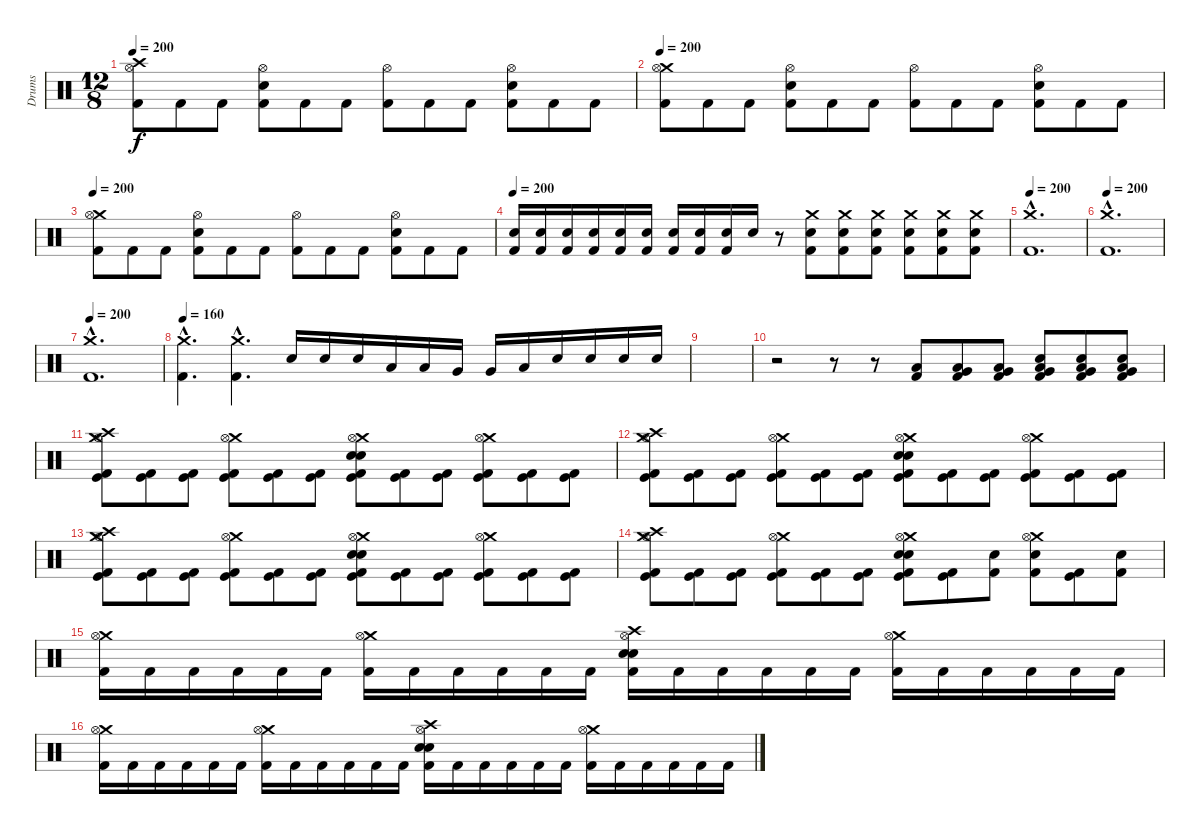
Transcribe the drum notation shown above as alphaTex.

\track ("Drums" "Drums") {instrument percussion}
\staff {score}
\articulation defaults
\ts (12 8)
\tempo 200
\clef neutral
\ks c
("Crash high (hit)" "Hi-Hat (open)" "Kick (hit) 2").8{dy f} "Kick (hit) 2".8 "Kick (hit) 2".8 ("Hi-Hat (open)" "Electric Snare (hit)" "Kick (hit) 2").8 "Kick (hit) 2".8 "Kick (hit) 2".8 ("Hi-Hat (open)" "Kick (hit) 2").8 "Kick (hit) 2".8 "Kick (hit) 2".8 ("Hi-Hat (open)" "Electric Snare (hit)" "Kick (hit) 2").8 "Kick (hit) 2".8 "Kick (hit) 2".8 |
\tempo 200
("Crash medium (hit)" "Hi-Hat (open)" "Kick (hit) 2").8 "Kick (hit) 2".8 "Kick (hit) 2".8 ("Hi-Hat (open)" "Electric Snare (hit)" "Kick (hit) 2").8 "Kick (hit) 2".8 "Kick (hit) 2".8 ("Hi-Hat (open)" "Kick (hit) 2").8 "Kick (hit) 2".8 "Kick (hit) 2".8 ("Hi-Hat (open)" "Electric Snare (hit)" "Kick (hit) 2").8 "Kick (hit) 2".8 "Kick (hit) 2".8 |
\tempo 200
("Crash medium (hit)" "Hi-Hat (open)" "Kick (hit) 2").8 "Kick (hit) 2".8 "Kick (hit) 2".8 ("Hi-Hat (open)" "Electric Snare (hit)" "Kick (hit) 2").8 "Kick (hit) 2".8 "Kick (hit) 2".8 ("Hi-Hat (open)" "Kick (hit) 2").8 "Kick (hit) 2".8 "Kick (hit) 2".8 ("Hi-Hat (open)" "Electric Snare (hit)" "Kick (hit) 2").8 "Kick (hit) 2".8 "Kick (hit) 2".8 |
\tempo 200
("Electric Snare (hit)" "Kick (hit) 2").16 ("Electric Snare (hit)" "Kick (hit) 2").16 ("Electric Snare (hit)" "Kick (hit) 2").16 ("Electric Snare (hit)" "Kick (hit) 2").16 ("Electric Snare (hit)" "Kick (hit) 2").16 ("Electric Snare (hit)" "Kick (hit) 2").16 ("Electric Snare (hit)" "Kick (hit) 2").16 ("Electric Snare (hit)" "Kick (hit) 2").16 ("Electric Snare (hit)" "Kick (hit) 2").16 "Electric Snare (hit)".16 r.8 ("Crash medium (hit)" "Electric Snare (hit)" "Kick (hit) 2").8 ("Crash medium (hit)" "Electric Snare (hit)" "Kick (hit) 2").8 ("Crash medium (hit)" "Electric Snare (hit)" "Kick (hit) 2").8 ("Crash medium (hit)" "Electric Snare (hit)" "Kick (hit) 2").8 ("Crash medium (hit)" "Electric Snare (hit)" "Kick (hit) 2").8 ("Crash medium (hit)" "Electric Snare (hit)" "Kick (hit) 2").8 |
\tempo 200
("Crash medium (hit)"{hac} "Kick (hit) 2"{hac}).1{d} |
\tempo 200
("Crash medium (hit)"{hac} "Kick (hit) 2"{hac}).1{d} |
\tempo 200
("Crash medium (hit)"{hac} "Kick (hit) 2"{hac}).1{d} |
\tempo 160
("Crash medium (hit)"{hac} "Kick (hit) 2"{hac}).4{d} ("Crash medium (hit)"{hac} "Kick (hit) 2"{hac}).4{d} "Electric Snare (hit)".16 "Electric Snare (hit)".16 "Electric Snare (hit)".16 "Low Tom (hit)".16 "Low Tom (hit)".16 "Very Low Tom (hit)".16 "Very Low Tom (hit)".16 "Low Floor Tom (hit)".16 "Electric Snare (hit)".16 "Electric Snare (hit)".16 "Electric Snare (hit)".16 "Electric Snare (hit)".16 |
|
r.2 r.8 r.8 ("Low Floor Tom (hit)" "Kick (hit) 2").8 ("Very Low Tom (hit)" "Low Floor Tom (hit)" "Kick (hit) 2").8 ("Very Low Tom (hit)" "Low Floor Tom (hit)" "Kick (hit) 2").8 ("Electric Snare (hit)" "Very Low Tom (hit)" "Low Floor Tom (hit)" "Kick (hit) 2").8 ("Electric Snare (hit)" "Very Low Tom (hit)" "Low Floor Tom (hit)" "Kick (hit) 2").8 ("Electric Snare (hit)" "Very Low Tom (hit)" "Low Floor Tom (hit)" "Kick (hit) 2").8 |
("Crash high (hit)" "Crash medium (hit)" "Hi-Hat (open)" "Kick (hit)" "Kick (hit) 2").8{volume 16} ("Kick (hit)" "Kick (hit) 2").8 ("Kick (hit)" "Kick (hit) 2").8 ("Crash medium (hit)" "Hi-Hat (open)" "Kick (hit)" "Kick (hit) 2").8 ("Kick (hit)" "Kick (hit) 2").8 ("Kick (hit)" "Kick (hit) 2").8 ("Crash medium (hit)" "Hi-Hat (open)" "Electric Snare (hit)" "Electric Snare (hit)" "Kick (hit)" "Kick (hit) 2").8 ("Kick (hit)" "Kick (hit) 2").8 ("Kick (hit)" "Kick (hit) 2").8 ("Crash medium (hit)" "Hi-Hat (open)" "Kick (hit)" "Kick (hit) 2").8 ("Kick (hit)" "Kick (hit) 2").8 ("Kick (hit)" "Kick (hit) 2").8 |
("Crash high (hit)" "Crash medium (hit)" "Hi-Hat (open)" "Kick (hit)" "Kick (hit) 2").8{volume 16} ("Kick (hit)" "Kick (hit) 2").8 ("Kick (hit)" "Kick (hit) 2").8 ("Crash medium (hit)" "Hi-Hat (open)" "Kick (hit)" "Kick (hit) 2").8 ("Kick (hit)" "Kick (hit) 2").8 ("Kick (hit)" "Kick (hit) 2").8 ("Crash medium (hit)" "Hi-Hat (open)" "Electric Snare (hit)" "Electric Snare (hit)" "Kick (hit)" "Kick (hit) 2").8 ("Kick (hit)" "Kick (hit) 2").8 ("Kick (hit)" "Kick (hit) 2").8 ("Crash medium (hit)" "Hi-Hat (open)" "Kick (hit)" "Kick (hit) 2").8 ("Kick (hit)" "Kick (hit) 2").8 ("Kick (hit)" "Kick (hit) 2").8 |
("Crash high (hit)" "Crash medium (hit)" "Hi-Hat (open)" "Kick (hit)" "Kick (hit) 2").8{volume 16} ("Kick (hit)" "Kick (hit) 2").8 ("Kick (hit)" "Kick (hit) 2").8 ("Crash medium (hit)" "Hi-Hat (open)" "Kick (hit)" "Kick (hit) 2").8 ("Kick (hit)" "Kick (hit) 2").8 ("Kick (hit)" "Kick (hit) 2").8 ("Crash medium (hit)" "Hi-Hat (open)" "Electric Snare (hit)" "Electric Snare (hit)" "Kick (hit)" "Kick (hit) 2").8 ("Kick (hit)" "Kick (hit) 2").8 ("Kick (hit)" "Kick (hit) 2").8 ("Crash medium (hit)" "Hi-Hat (open)" "Kick (hit)" "Kick (hit) 2").8 ("Kick (hit)" "Kick (hit) 2").8 ("Kick (hit)" "Kick (hit) 2").8 |
("Crash high (hit)" "Crash medium (hit)" "Hi-Hat (open)" "Kick (hit)" "Kick (hit) 2").8{volume 16} ("Kick (hit)" "Kick (hit) 2").8 ("Kick (hit)" "Kick (hit) 2").8 ("Crash medium (hit)" "Hi-Hat (open)" "Kick (hit)" "Kick (hit) 2").8 ("Kick (hit)" "Kick (hit) 2").8 ("Kick (hit)" "Kick (hit) 2").8 ("Crash medium (hit)" "Hi-Hat (open)" "Electric Snare (hit)" "Electric Snare (hit)" "Kick (hit)" "Kick (hit) 2").8 ("Kick (hit)" "Kick (hit) 2").8 ("Electric Snare (hit)" "Kick (hit) 2").8 ("Crash medium (hit)" "Hi-Hat (open)" "Electric Snare (hit)" "Kick (hit) 2").8 ("Kick (hit)" "Kick (hit) 2").8 ("Electric Snare (hit)" "Kick (hit) 2").8 |
("Crash medium (hit)" "Hi-Hat (open)" "Kick (hit) 2").16 "Kick (hit) 2".16 "Kick (hit) 2".16 "Kick (hit) 2".16 "Kick (hit) 2".16 "Kick (hit) 2".16 ("Crash medium (hit)" "Hi-Hat (open)" "Kick (hit) 2").16 "Kick (hit) 2".16 "Kick (hit) 2".16 "Kick (hit) 2".16 "Kick (hit) 2".16 "Kick (hit) 2".16 ("Crash high (hit)" "Hi-Hat (open)" "Electric Snare (hit)" "Electric Snare (hit)" "Kick (hit) 2").16 "Kick (hit) 2".16 "Kick (hit) 2".16 "Kick (hit) 2".16 "Kick (hit) 2".16 "Kick (hit) 2".16 ("Crash medium (hit)" "Hi-Hat (open)" "Kick (hit) 2").16 "Kick (hit) 2".16 "Kick (hit) 2".16 "Kick (hit) 2".16 "Kick (hit) 2".16 "Kick (hit) 2".16 |
("Crash medium (hit)" "Hi-Hat (open)" "Kick (hit) 2").16 "Kick (hit) 2".16 "Kick (hit) 2".16 "Kick (hit) 2".16 "Kick (hit) 2".16 "Kick (hit) 2".16 ("Crash medium (hit)" "Hi-Hat (open)" "Kick (hit) 2").16 "Kick (hit) 2".16 "Kick (hit) 2".16 "Kick (hit) 2".16 "Kick (hit) 2".16 "Kick (hit) 2".16 ("Crash high (hit)" "Hi-Hat (open)" "Electric Snare (hit)" "Electric Snare (hit)" "Kick (hit) 2").16 "Kick (hit) 2".16 "Kick (hit) 2".16 "Kick (hit) 2".16 "Kick (hit) 2".16 "Kick (hit) 2".16 ("Crash medium (hit)" "Hi-Hat (open)" "Kick (hit) 2").16 "Kick (hit) 2".16 "Kick (hit) 2".16 "Kick (hit) 2".16 "Kick (hit) 2".16 "Kick (hit) 2".16
